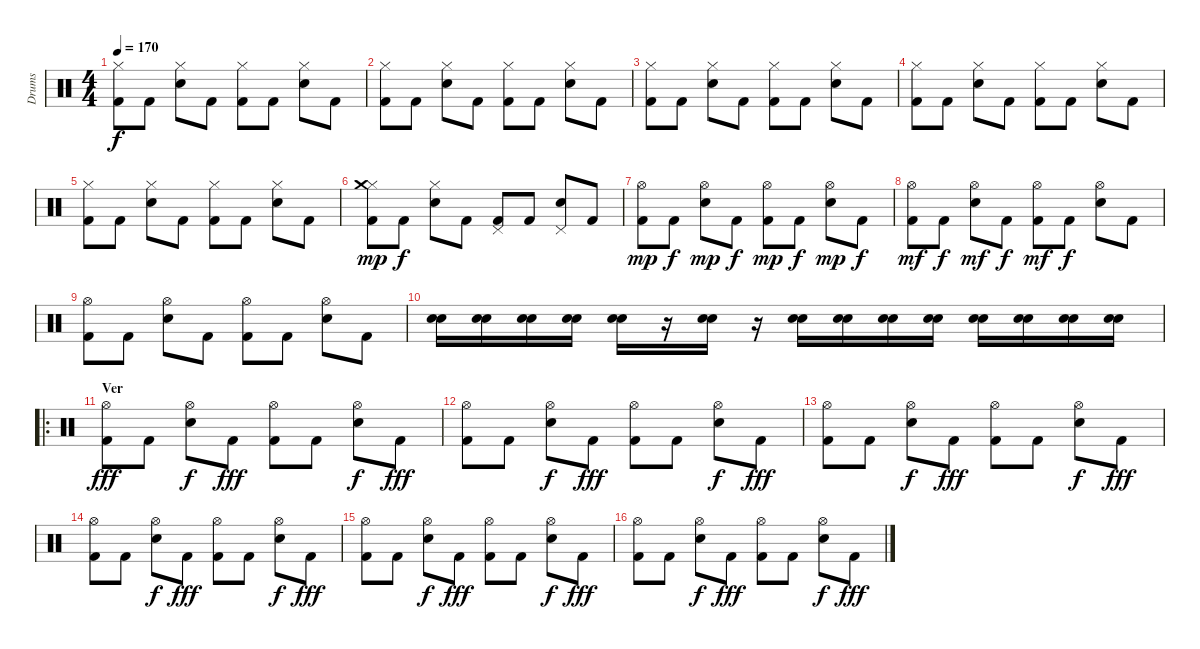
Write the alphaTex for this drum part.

\track ("Drums" "Drums") {instrument percussion}
\staff {score}
\articulation defaults
\ts (4 4)
\tempo 170
\clef neutral
\ks c
("Hi-Hat (closed)" "Kick (hit) 2").8{dy f} "Kick (hit) 2".8 ("Hi-Hat (closed)" "Snare (hit) 2").8 "Kick (hit) 2".8 ("Hi-Hat (closed)" "Kick (hit) 2").8 "Kick (hit) 2".8 ("Hi-Hat (closed)" "Snare (hit) 2").8 "Kick (hit) 2".8 |
("Hi-Hat (closed)" "Kick (hit) 2").8 "Kick (hit) 2".8 ("Hi-Hat (closed)" "Snare (hit) 2").8 "Kick (hit) 2".8 ("Hi-Hat (closed)" "Kick (hit) 2").8 "Kick (hit) 2".8 ("Hi-Hat (closed)" "Snare (hit) 2").8 "Kick (hit) 2".8 |
("Hi-Hat (closed)" "Kick (hit) 2").8 "Kick (hit) 2".8 ("Hi-Hat (closed)" "Snare (hit) 2").8 "Kick (hit) 2".8 ("Hi-Hat (closed)" "Kick (hit) 2").8 "Kick (hit) 2".8 ("Hi-Hat (closed)" "Snare (hit) 2").8 "Kick (hit) 2".8 |
("Hi-Hat (closed)" "Kick (hit) 2").8 "Kick (hit) 2".8 ("Hi-Hat (closed)" "Snare (hit) 2").8 "Kick (hit) 2".8 ("Hi-Hat (closed)" "Kick (hit) 2").8 "Kick (hit) 2".8 ("Hi-Hat (closed)" "Snare (hit) 2").8 "Kick (hit) 2".8 |
("Hi-Hat (closed)" "Kick (hit) 2").8 "Kick (hit) 2".8 ("Hi-Hat (closed)" "Snare (hit) 2").8 "Kick (hit) 2".8 ("Hi-Hat (closed)" "Kick (hit) 2").8 "Kick (hit) 2".8 ("Hi-Hat (closed)" "Snare (hit) 2").8 "Kick (hit) 2".8 |
("Hi-Hat (closed)" "Crash medium (hit)" "Kick (hit) 2").8{dy mp} "Kick (hit) 2".8{dy f} ("Hi-Hat (closed)" "Snare (hit) 2").8 "Kick (hit) 2".8 ("Pedal Hi-Hat (hit)" "Kick (hit) 2").8 "Kick (hit) 2".8 ("Pedal Hi-Hat (hit)" "Snare (hit) 2").8 "Kick (hit) 2".8 |
("Hi-Hat (open)" "Kick (hit) 2").8{dy mp} "Kick (hit) 2".8{dy f} ("Hi-Hat (open)" "Snare (hit) 2").8{dy mp} "Kick (hit) 2".8{dy f} ("Hi-Hat (open)" "Kick (hit) 2").8{dy mp} "Kick (hit) 2".8{dy f} ("Hi-Hat (open)" "Snare (hit) 2").8{dy mp} "Kick (hit) 2".8{dy f} |
("Hi-Hat (open)" "Kick (hit) 2").8{dy mf} "Kick (hit) 2".8{dy f} ("Hi-Hat (open)" "Snare (hit) 2").8{dy mf} "Kick (hit) 2".8{dy f} ("Hi-Hat (open)" "Kick (hit) 2").8{dy mf} "Kick (hit) 2".8{dy f} ("Hi-Hat (open)" "Snare (hit) 2").8 "Kick (hit) 2".8 |
("Hi-Hat (open)" "Kick (hit) 2").8 "Kick (hit) 2".8 ("Hi-Hat (open)" "Snare (hit) 2").8 "Kick (hit) 2".8 ("Hi-Hat (open)" "Kick (hit) 2").8 "Kick (hit) 2".8 ("Hi-Hat (open)" "Snare (hit) 2").8 "Kick (hit) 2".8 |
("Snare (hit) 2" "Snare (hit) 2").16 ("Snare (hit) 2" "Snare (hit) 2").16 ("Snare (hit) 2" "Snare (hit) 2").16 ("Snare (hit) 2" "Snare (hit) 2").16 ("Snare (hit) 2" "Snare (hit) 2").16 r.16 ("Snare (hit) 2" "Snare (hit) 2").16 r.16 ("Snare (hit) 2" "Snare (hit) 2").16 ("Snare (hit) 2" "Snare (hit) 2").16 ("Snare (hit) 2" "Snare (hit) 2").16 ("Snare (hit) 2" "Snare (hit) 2").16 ("Snare (hit) 2" "Snare (hit) 2").16 ("Snare (hit) 2" "Snare (hit) 2").16 ("Snare (hit) 2" "Snare (hit) 2").16 ("Snare (hit) 2" "Snare (hit) 2").16 |
\ro
\section ("" "Ver")
("Hi-Hat (open)" "Kick (hit) 2").8{dy fff} "Kick (hit) 2".8 ("Hi-Hat (open)" "Snare (hit) 2").8{dy f} "Kick (hit) 2".8{dy fff} ("Hi-Hat (open)" "Kick (hit) 2").8 "Kick (hit) 2".8 ("Hi-Hat (open)" "Snare (hit) 2").8{dy f} "Kick (hit) 2".8{dy fff} |
("Hi-Hat (open)" "Kick (hit) 2").8 "Kick (hit) 2".8 ("Hi-Hat (open)" "Snare (hit) 2").8{dy f} "Kick (hit) 2".8{dy fff} ("Hi-Hat (open)" "Kick (hit) 2").8 "Kick (hit) 2".8 ("Hi-Hat (open)" "Snare (hit) 2").8{dy f} "Kick (hit) 2".8{dy fff} |
("Hi-Hat (open)" "Kick (hit) 2").8 "Kick (hit) 2".8 ("Hi-Hat (open)" "Snare (hit) 2").8{dy f} "Kick (hit) 2".8{dy fff} ("Hi-Hat (open)" "Kick (hit) 2").8 "Kick (hit) 2".8 ("Hi-Hat (open)" "Snare (hit) 2").8{dy f} "Kick (hit) 2".8{dy fff} |
("Hi-Hat (open)" "Kick (hit) 2").8 "Kick (hit) 2".8 ("Hi-Hat (open)" "Snare (hit) 2").8{dy f} "Kick (hit) 2".8{dy fff} ("Hi-Hat (open)" "Kick (hit) 2").8 "Kick (hit) 2".8 ("Hi-Hat (open)" "Snare (hit) 2").8{dy f} "Kick (hit) 2".8{dy fff} |
("Hi-Hat (open)" "Kick (hit) 2").8 "Kick (hit) 2".8 ("Hi-Hat (open)" "Snare (hit) 2").8{dy f} "Kick (hit) 2".8{dy fff} ("Hi-Hat (open)" "Kick (hit) 2").8 "Kick (hit) 2".8 ("Hi-Hat (open)" "Snare (hit) 2").8{dy f} "Kick (hit) 2".8{dy fff} |
("Hi-Hat (open)" "Kick (hit) 2").8 "Kick (hit) 2".8 ("Hi-Hat (open)" "Snare (hit) 2").8{dy f} "Kick (hit) 2".8{dy fff} ("Hi-Hat (open)" "Kick (hit) 2").8 "Kick (hit) 2".8 ("Hi-Hat (open)" "Snare (hit) 2").8{dy f} "Kick (hit) 2".8{dy fff}
